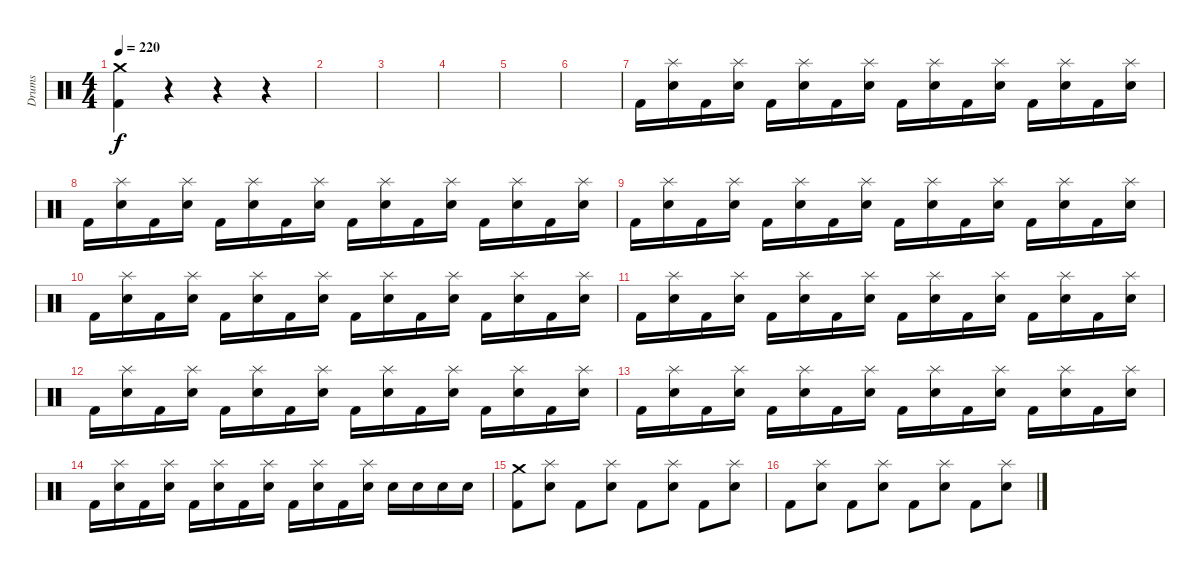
\track ("Drums" "Drums") {instrument percussion}
\staff {score}
\articulation defaults
\ts (4 4)
\tempo 220
\clef neutral
\ks c
("Crash medium (hit)" "Kick (hit) 2").4{dy f} r.4 r.4 r.4 |
|
|
|
|
|
"Kick (hit) 2".16 ("Splash (hit)" "Electric Snare (hit)").16 "Kick (hit) 2".16 ("Splash (hit)" "Electric Snare (hit)").16 "Kick (hit) 2".16 ("Splash (hit)" "Electric Snare (hit)").16 "Kick (hit) 2".16 ("Splash (hit)" "Electric Snare (hit)").16 "Kick (hit) 2".16 ("Splash (hit)" "Electric Snare (hit)").16 "Kick (hit) 2".16 ("Splash (hit)" "Electric Snare (hit)").16 "Kick (hit) 2".16 ("Splash (hit)" "Electric Snare (hit)").16 "Kick (hit) 2".16 ("Splash (hit)" "Electric Snare (hit)").16 |
"Kick (hit) 2".16 ("Splash (hit)" "Electric Snare (hit)").16 "Kick (hit) 2".16 ("Splash (hit)" "Electric Snare (hit)").16 "Kick (hit) 2".16 ("Splash (hit)" "Electric Snare (hit)").16 "Kick (hit) 2".16 ("Splash (hit)" "Electric Snare (hit)").16 "Kick (hit) 2".16 ("Splash (hit)" "Electric Snare (hit)").16 "Kick (hit) 2".16 ("Splash (hit)" "Electric Snare (hit)").16 "Kick (hit) 2".16 ("Splash (hit)" "Electric Snare (hit)").16 "Kick (hit) 2".16 ("Splash (hit)" "Electric Snare (hit)").16 |
"Kick (hit) 2".16 ("Splash (hit)" "Electric Snare (hit)").16 "Kick (hit) 2".16 ("Splash (hit)" "Electric Snare (hit)").16 "Kick (hit) 2".16 ("Splash (hit)" "Electric Snare (hit)").16 "Kick (hit) 2".16 ("Splash (hit)" "Electric Snare (hit)").16 "Kick (hit) 2".16 ("Splash (hit)" "Electric Snare (hit)").16 "Kick (hit) 2".16 ("Splash (hit)" "Electric Snare (hit)").16 "Kick (hit) 2".16 ("Splash (hit)" "Electric Snare (hit)").16 "Kick (hit) 2".16 ("Splash (hit)" "Electric Snare (hit)").16 |
"Kick (hit) 2".16 ("Splash (hit)" "Electric Snare (hit)").16 "Kick (hit) 2".16 ("Splash (hit)" "Electric Snare (hit)").16 "Kick (hit) 2".16 ("Splash (hit)" "Electric Snare (hit)").16 "Kick (hit) 2".16 ("Splash (hit)" "Electric Snare (hit)").16 "Kick (hit) 2".16 ("Splash (hit)" "Electric Snare (hit)").16 "Kick (hit) 2".16 ("Splash (hit)" "Electric Snare (hit)").16 "Kick (hit) 2".16 ("Splash (hit)" "Electric Snare (hit)").16 "Kick (hit) 2".16 ("Splash (hit)" "Electric Snare (hit)").16 |
"Kick (hit) 2".16 ("Splash (hit)" "Electric Snare (hit)").16 "Kick (hit) 2".16 ("Splash (hit)" "Electric Snare (hit)").16 "Kick (hit) 2".16 ("Splash (hit)" "Electric Snare (hit)").16 "Kick (hit) 2".16 ("Splash (hit)" "Electric Snare (hit)").16 "Kick (hit) 2".16 ("Splash (hit)" "Electric Snare (hit)").16 "Kick (hit) 2".16 ("Splash (hit)" "Electric Snare (hit)").16 "Kick (hit) 2".16 ("Splash (hit)" "Electric Snare (hit)").16 "Kick (hit) 2".16 ("Splash (hit)" "Electric Snare (hit)").16 |
"Kick (hit) 2".16 ("Splash (hit)" "Electric Snare (hit)").16 "Kick (hit) 2".16 ("Splash (hit)" "Electric Snare (hit)").16 "Kick (hit) 2".16 ("Splash (hit)" "Electric Snare (hit)").16 "Kick (hit) 2".16 ("Splash (hit)" "Electric Snare (hit)").16 "Kick (hit) 2".16 ("Splash (hit)" "Electric Snare (hit)").16 "Kick (hit) 2".16 ("Splash (hit)" "Electric Snare (hit)").16 "Kick (hit) 2".16 ("Splash (hit)" "Electric Snare (hit)").16 "Kick (hit) 2".16 ("Splash (hit)" "Electric Snare (hit)").16 |
"Kick (hit) 2".16 ("Splash (hit)" "Electric Snare (hit)").16 "Kick (hit) 2".16 ("Splash (hit)" "Electric Snare (hit)").16 "Kick (hit) 2".16 ("Splash (hit)" "Electric Snare (hit)").16 "Kick (hit) 2".16 ("Splash (hit)" "Electric Snare (hit)").16 "Kick (hit) 2".16 ("Splash (hit)" "Electric Snare (hit)").16 "Kick (hit) 2".16 ("Splash (hit)" "Electric Snare (hit)").16 "Kick (hit) 2".16 ("Splash (hit)" "Electric Snare (hit)").16 "Kick (hit) 2".16 ("Splash (hit)" "Electric Snare (hit)").16 |
"Kick (hit) 2".16 ("Splash (hit)" "Electric Snare (hit)").16 "Kick (hit) 2".16 ("Splash (hit)" "Electric Snare (hit)").16 "Kick (hit) 2".16 ("Splash (hit)" "Electric Snare (hit)").16 "Kick (hit) 2".16 ("Splash (hit)" "Electric Snare (hit)").16 "Kick (hit) 2".16 ("Splash (hit)" "Electric Snare (hit)").16 "Kick (hit) 2".16 ("Splash (hit)" "Electric Snare (hit)").16 "Electric Snare (hit)".16 "Electric Snare (hit)".16 "Electric Snare (hit)".16 "Electric Snare (hit)".16 |
("Crash medium (hit)" "Kick (hit) 2").8 ("Splash (hit)" "Electric Snare (hit)").8 "Kick (hit) 2".8 ("Splash (hit)" "Electric Snare (hit)").8 "Kick (hit) 2".8 ("Splash (hit)" "Electric Snare (hit)").8 "Kick (hit) 2".8 ("Splash (hit)" "Electric Snare (hit)").8 |
"Kick (hit) 2".8 ("Splash (hit)" "Electric Snare (hit)").8 "Kick (hit) 2".8 ("Splash (hit)" "Electric Snare (hit)").8 "Kick (hit) 2".8 ("Splash (hit)" "Electric Snare (hit)").8 "Kick (hit) 2".8 ("Splash (hit)" "Electric Snare (hit)").8
